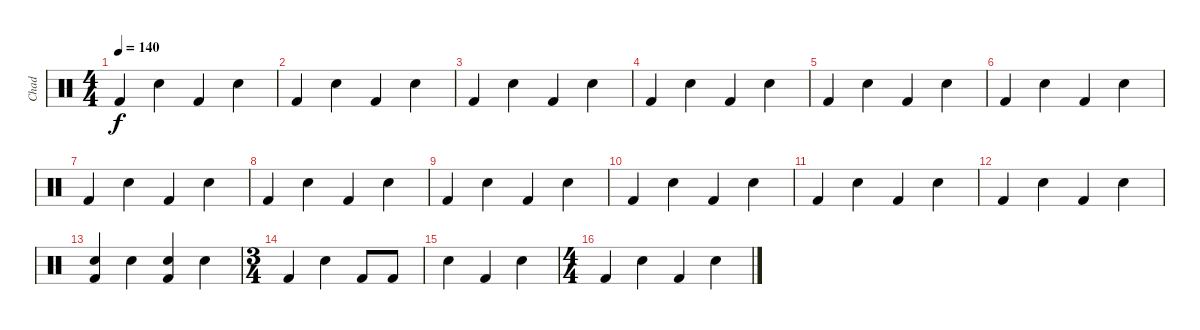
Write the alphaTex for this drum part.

\track ("Chad" "Chad") {instrument percussion}
\staff {score}
\articulation defaults
\ts (4 4)
\tempo 140
\clef neutral
\ks c "Kick (hit) 2".4{dy f} "Electric Snare (hit)".4 "Kick (hit) 2".4 "Electric Snare (hit)".4
|
"Kick (hit) 2".4 "Electric Snare (hit)".4 "Kick (hit) 2".4 "Electric Snare (hit)".4 |
"Kick (hit) 2".4 "Electric Snare (hit)".4 "Kick (hit) 2".4 "Electric Snare (hit)".4 |
"Kick (hit) 2".4 "Electric Snare (hit)".4 "Kick (hit) 2".4 "Electric Snare (hit)".4 |
"Kick (hit) 2".4 "Electric Snare (hit)".4 "Kick (hit) 2".4 "Electric Snare (hit)".4 |
"Kick (hit) 2".4 "Electric Snare (hit)".4 "Kick (hit) 2".4 "Electric Snare (hit)".4 |
"Kick (hit) 2".4 "Electric Snare (hit)".4 "Kick (hit) 2".4 "Electric Snare (hit)".4 |
"Kick (hit) 2".4 "Electric Snare (hit)".4 "Kick (hit) 2".4 "Electric Snare (hit)".4 |
"Kick (hit) 2".4 "Electric Snare (hit)".4 "Kick (hit) 2".4 "Electric Snare (hit)".4 |
"Kick (hit) 2".4 "Electric Snare (hit)".4 "Kick (hit) 2".4 "Electric Snare (hit)".4 |
"Kick (hit) 2".4 "Electric Snare (hit)".4 "Kick (hit) 2".4 "Electric Snare (hit)".4 |
"Kick (hit) 2".4 "Electric Snare (hit)".4 "Kick (hit) 2".4 "Electric Snare (hit)".4 |
("Electric Snare (hit)" "Kick (hit) 2").4 "Electric Snare (hit)".4 ("Electric Snare (hit)" "Kick (hit) 2").4 "Electric Snare (hit)".4 |
\ts (3 4)
"Kick (hit) 2".4 "Electric Snare (hit)".4 "Kick (hit) 2".8 "Kick (hit) 2".8 |
"Electric Snare (hit)".4 "Kick (hit) 2".4 "Electric Snare (hit)".4 |
\ts (4 4)
"Kick (hit) 2".4 "Electric Snare (hit)".4 "Kick (hit) 2".4 "Electric Snare (hit)".4
